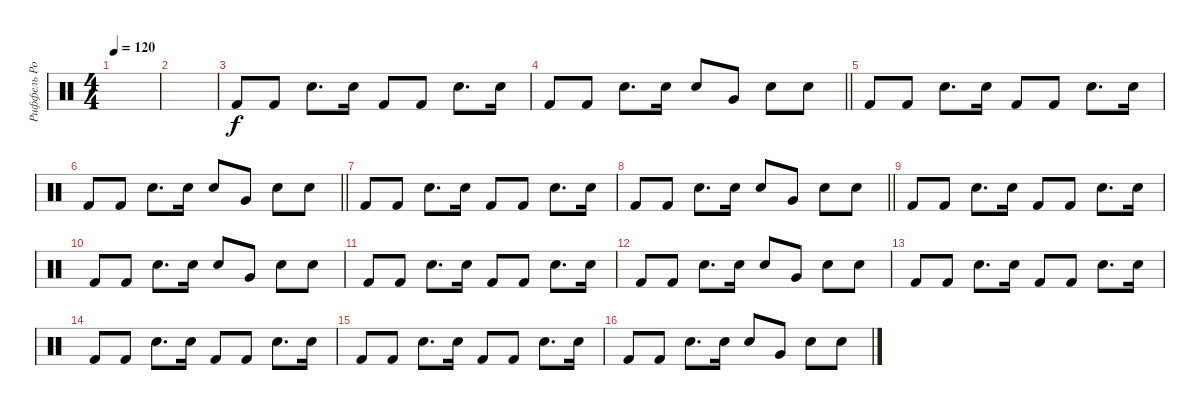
\track ("Риффель Роман (главные)" "Риффель Ро") {instrument percussion}
\staff {score}
\articulation defaults
\ts (4 4)
\tempo 120
\clef neutral
\ks c
|
|
"Kick (hit) 2".8 "Kick (hit) 2".8 "Electric Snare (hit)".8{d} "Electric Snare (hit)".16 "Kick (hit) 2".8 "Kick (hit) 2".8 "Electric Snare (hit)".8{d} "Electric Snare (hit)".16 |
\barLineRight lightlight "Kick (hit) 2".8 "Kick (hit) 2".8 "Electric Snare (hit)".8{d} "Electric Snare (hit)".16 "Electric Snare (hit)".8 "Very Low Tom (hit)".8 "Electric Snare (hit)".8 "Electric Snare (hit)".8
|
"Kick (hit) 2".8 "Kick (hit) 2".8 "Electric Snare (hit)".8{d} "Electric Snare (hit)".16 "Kick (hit) 2".8 "Kick (hit) 2".8 "Electric Snare (hit)".8{d} "Electric Snare (hit)".16 |
\barLineRight lightlight "Kick (hit) 2".8 "Kick (hit) 2".8 "Electric Snare (hit)".8{d} "Electric Snare (hit)".16 "Electric Snare (hit)".8 "Very Low Tom (hit)".8 "Electric Snare (hit)".8 "Electric Snare (hit)".8
|
"Kick (hit) 2".8 "Kick (hit) 2".8 "Electric Snare (hit)".8{d} "Electric Snare (hit)".16 "Kick (hit) 2".8 "Kick (hit) 2".8 "Electric Snare (hit)".8{d} "Electric Snare (hit)".16 |
\barLineRight lightlight "Kick (hit) 2".8 "Kick (hit) 2".8 "Electric Snare (hit)".8{d} "Electric Snare (hit)".16 "Electric Snare (hit)".8 "Very Low Tom (hit)".8 "Electric Snare (hit)".8 "Electric Snare (hit)".8
|
"Kick (hit) 2".8 "Kick (hit) 2".8 "Electric Snare (hit)".8{d} "Electric Snare (hit)".16 "Kick (hit) 2".8 "Kick (hit) 2".8 "Electric Snare (hit)".8{d} "Electric Snare (hit)".16 |
"Kick (hit) 2".8 "Kick (hit) 2".8 "Electric Snare (hit)".8{d} "Electric Snare (hit)".16 "Electric Snare (hit)".8 "Very Low Tom (hit)".8 "Electric Snare (hit)".8 "Electric Snare (hit)".8 |
"Kick (hit) 2".8 "Kick (hit) 2".8 "Electric Snare (hit)".8{d} "Electric Snare (hit)".16 "Kick (hit) 2".8 "Kick (hit) 2".8 "Electric Snare (hit)".8{d} "Electric Snare (hit)".16 |
"Kick (hit) 2".8 "Kick (hit) 2".8 "Electric Snare (hit)".8{d} "Electric Snare (hit)".16 "Electric Snare (hit)".8 "Very Low Tom (hit)".8 "Electric Snare (hit)".8 "Electric Snare (hit)".8 |
"Kick (hit) 2".8 "Kick (hit) 2".8 "Electric Snare (hit)".8{d} "Electric Snare (hit)".16 "Kick (hit) 2".8 "Kick (hit) 2".8 "Electric Snare (hit)".8{d} "Electric Snare (hit)".16 |
"Kick (hit) 2".8 "Kick (hit) 2".8 "Electric Snare (hit)".8{d} "Electric Snare (hit)".16 "Kick (hit) 2".8 "Kick (hit) 2".8 "Electric Snare (hit)".8{d} "Electric Snare (hit)".16 |
"Kick (hit) 2".8 "Kick (hit) 2".8 "Electric Snare (hit)".8{d} "Electric Snare (hit)".16 "Kick (hit) 2".8 "Kick (hit) 2".8 "Electric Snare (hit)".8{d} "Electric Snare (hit)".16 |
"Kick (hit) 2".8 "Kick (hit) 2".8 "Electric Snare (hit)".8{d} "Electric Snare (hit)".16 "Electric Snare (hit)".8 "Very Low Tom (hit)".8 "Electric Snare (hit)".8 "Electric Snare (hit)".8
